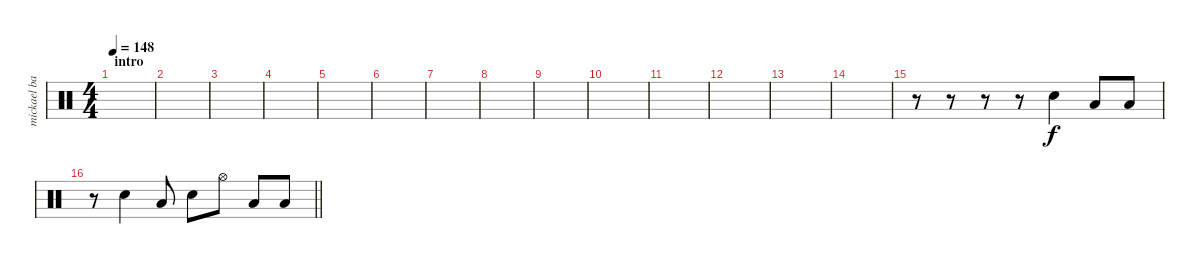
\track ("mickael barker drums" "mickael ba") {instrument percussion}
\staff {score}
\articulation defaults
\ts (4 4)
\section ("" "intro")
\tempo 148
\clef neutral
\ks c
|
|
|
|
|
|
|
|
|
|
|
|
|
|
r.8 r.8 r.8 r.8 "Snare (hit) 2".4 "Low Tom (hit)".8 "Low Tom (hit)".8 |
\barLineRight lightlight
r.8 "Snare (hit) 2".4 "Low Tom (hit)".8 "Snare (hit) 2".8 "Hi-Hat (open)".8 "Low Tom (hit)".8 "Low Floor Tom (hit)".8
